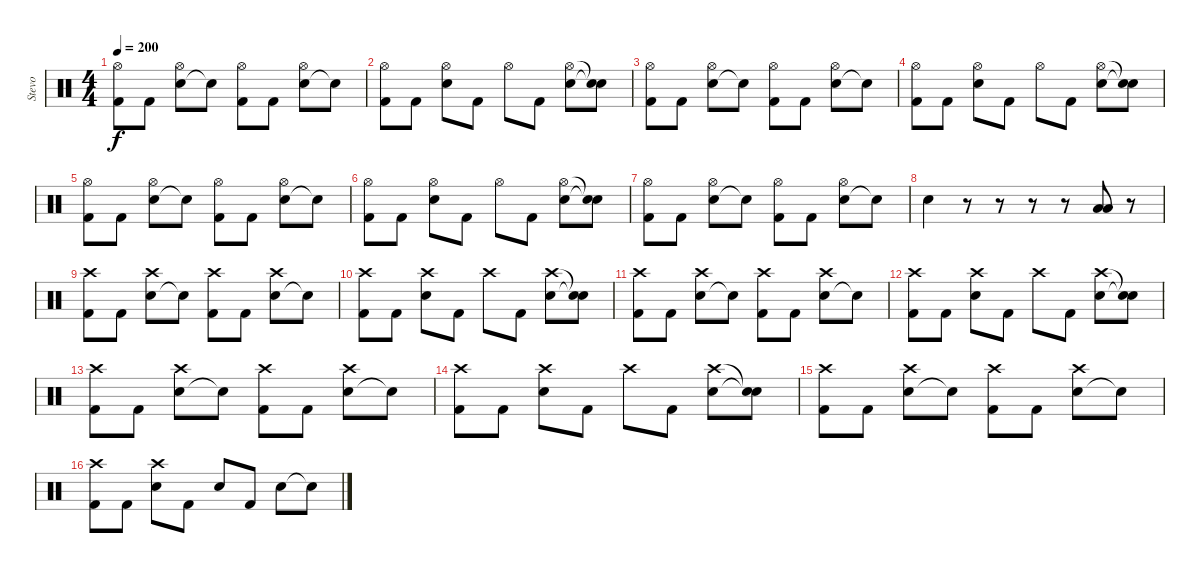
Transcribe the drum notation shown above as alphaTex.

\track ("Stevo" "Stevo") {instrument percussion}
\staff {score}
\articulation defaults
\ts (4 4)
\tempo 200
\clef neutral
\ks c
("Kick (hit) 2" "Hi-Hat (open)").8{dy f} "Kick (hit) 2".8 ("Snare (hit) 2" "Hi-Hat (open)").8 "Snare (hit)"{t}.8 ("Kick (hit) 2" "Hi-Hat (open)").8 "Kick (hit) 2".8 ("Snare (hit) 2" "Hi-Hat (open)").8 "Snare (hit)"{t}.8 |
("Kick (hit) 2" "Hi-Hat (open)").8 "Kick (hit) 2".8 ("Snare (hit) 2" "Hi-Hat (open)").8 "Kick (hit) 2".8 "Hi-Hat (open)".8 "Kick (hit) 2".8 ("Snare (hit) 2" "Hi-Hat (open)").8 ("Snare (hit)"{t} "Snare (hit)"{t}).8 |
("Kick (hit) 2" "Hi-Hat (open)").8 "Kick (hit) 2".8 ("Snare (hit) 2" "Hi-Hat (open)").8 "Snare (hit)"{t}.8 ("Kick (hit) 2" "Hi-Hat (open)").8 "Kick (hit) 2".8 ("Snare (hit) 2" "Hi-Hat (open)").8 "Snare (hit)"{t}.8 |
("Kick (hit) 2" "Hi-Hat (open)").8 "Kick (hit) 2".8 ("Snare (hit) 2" "Hi-Hat (open)").8 "Kick (hit) 2".8 "Hi-Hat (open)".8 "Kick (hit) 2".8 ("Snare (hit) 2" "Hi-Hat (open)").8 ("Snare (hit)"{t} "Snare (hit)"{t}).8 |
("Kick (hit) 2" "Hi-Hat (open)").8 "Kick (hit) 2".8 ("Snare (hit) 2" "Hi-Hat (open)").8 "Snare (hit)"{t}.8 ("Kick (hit) 2" "Hi-Hat (open)").8 "Kick (hit) 2".8 ("Snare (hit) 2" "Hi-Hat (open)").8 "Snare (hit)"{t}.8 |
("Kick (hit) 2" "Hi-Hat (open)").8 "Kick (hit) 2".8 ("Snare (hit) 2" "Hi-Hat (open)").8 "Kick (hit) 2".8 "Hi-Hat (open)".8 "Kick (hit) 2".8 ("Snare (hit) 2" "Hi-Hat (open)").8 ("Snare (hit)"{t} "Snare (hit)"{t}).8 |
("Kick (hit) 2" "Hi-Hat (open)").8 "Kick (hit) 2".8 ("Snare (hit) 2" "Hi-Hat (open)").8 "Snare (hit)"{t}.8 ("Kick (hit) 2" "Hi-Hat (open)").8 "Kick (hit) 2".8 ("Snare (hit) 2" "Hi-Hat (open)").8 "Snare (hit)"{t}.8 |
"Snare (hit) 2".4 r.8 r.8 r.8 r.8 ("Low Tom (hit)" "Low Floor Tom (hit)").8 r.8 |
("Kick (hit) 2" "Crash high (hit)").8 "Kick (hit) 2".8 ("Snare (hit) 2" "Crash high (hit)").8 "Snare (hit)"{t}.8 ("Kick (hit) 2" "Crash high (hit)").8 "Kick (hit) 2".8 ("Snare (hit) 2" "Crash high (hit)").8 "Snare (hit)"{t}.8 |
("Kick (hit) 2" "Crash high (hit)").8 "Kick (hit) 2".8 ("Snare (hit) 2" "Crash high (hit)").8 "Kick (hit) 2".8 "Crash high (hit)".8 "Kick (hit) 2".8 ("Snare (hit) 2" "Crash high (hit)").8 ("Snare (hit)"{t} "Snare (hit)"{t}).8 |
("Kick (hit) 2" "Crash high (hit)").8 "Kick (hit) 2".8 ("Snare (hit) 2" "Crash high (hit)").8 "Snare (hit)"{t}.8 ("Kick (hit) 2" "Crash high (hit)").8 "Kick (hit) 2".8 ("Snare (hit) 2" "Crash high (hit)").8 "Snare (hit)"{t}.8 |
("Kick (hit) 2" "Crash high (hit)").8 "Kick (hit) 2".8 ("Snare (hit) 2" "Crash high (hit)").8 "Kick (hit) 2".8 "Crash high (hit)".8 "Kick (hit) 2".8 ("Snare (hit) 2" "Crash high (hit)").8 ("Snare (hit)"{t} "Snare (hit)"{t}).8 |
("Kick (hit) 2" "Crash high (hit)").8 "Kick (hit) 2".8 ("Snare (hit) 2" "Crash high (hit)").8 "Snare (hit)"{t}.8 ("Kick (hit) 2" "Crash high (hit)").8 "Kick (hit) 2".8 ("Snare (hit) 2" "Crash high (hit)").8 "Snare (hit)"{t}.8 |
("Kick (hit) 2" "Crash high (hit)").8 "Kick (hit) 2".8 ("Snare (hit) 2" "Crash high (hit)").8 "Kick (hit) 2".8 "Crash high (hit)".8 "Kick (hit) 2".8 ("Snare (hit) 2" "Crash high (hit)").8 ("Snare (hit)"{t} "Snare (hit)"{t}).8 |
("Kick (hit) 2" "Crash high (hit)").8 "Kick (hit) 2".8 ("Snare (hit) 2" "Crash high (hit)").8 "Snare (hit)"{t}.8 ("Kick (hit) 2" "Crash high (hit)").8 "Kick (hit) 2".8 ("Snare (hit) 2" "Crash high (hit)").8 "Snare (hit)"{t}.8 |
("Kick (hit) 2" "Crash high (hit)").8 "Kick (hit) 2".8 ("Snare (hit) 2" "Crash high (hit)").8 "Kick (hit) 2".8 "Snare (hit) 2".8 "Kick (hit) 2".8 "Snare (hit) 2".8 "Snare (hit)"{t}.8
